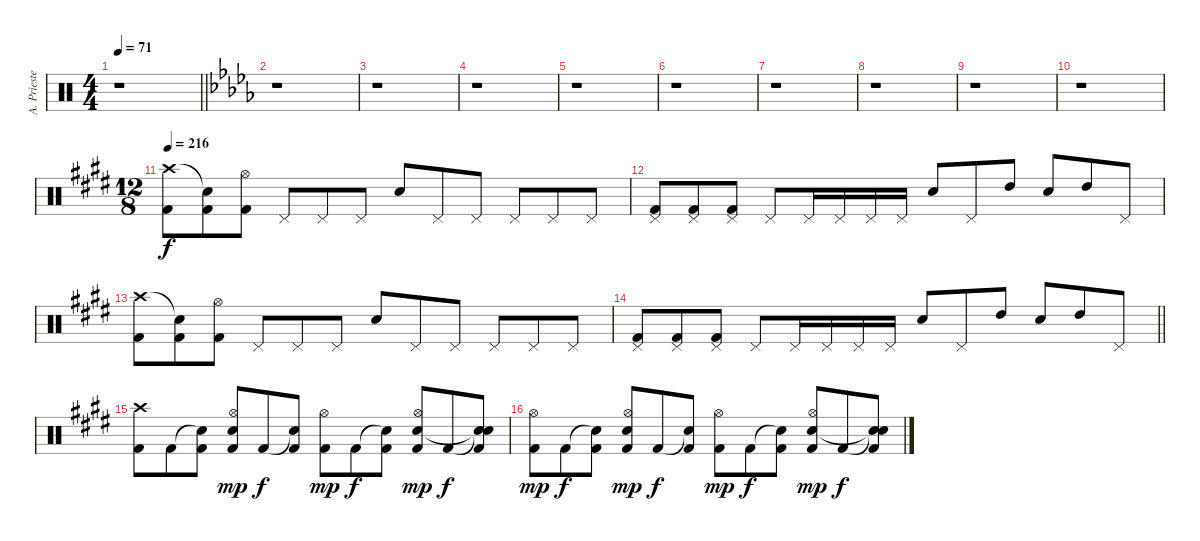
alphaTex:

\track ("A. Priester" "A. Prieste") {instrument percussion}
\staff {score}
\articulation defaults
\ts (4 4)
\tempo 71
\clef neutral
\barLineRight lightlight
\ks c
r.1{dy f} |
\ks db
r.1 |
r.1 |
r.1 |
r.1 |
r.1 |
r.1 |
r.1 |
r.1 |
r.1 |
\ts (12 8)
\tempo 216
\ks e
("Crash high (hit)" "Kick (hit) 2").8 ("Snare (hit)"{t} "Kick (hit) 2").8 ("Hi-Hat (open)" "Kick (hit) 2").8 "Pedal Hi-Hat (hit)".8 "Pedal Hi-Hat (hit)".8 "Pedal Hi-Hat (hit)".8 "Electric Snare (hit)".8 "Pedal Hi-Hat (hit)".8 "Pedal Hi-Hat (hit)".8 "Pedal Hi-Hat (hit)".8 "Pedal Hi-Hat (hit)".8 "Pedal Hi-Hat (hit)".8 |
("Pedal Hi-Hat (hit)" "Kick (hit) 2").8 ("Pedal Hi-Hat (hit)" "Kick (hit) 2").8 ("Pedal Hi-Hat (hit)" "Kick (hit) 2").8 "Pedal Hi-Hat (hit)".8 "Pedal Hi-Hat (hit)".16 "Pedal Hi-Hat (hit)".16 "Pedal Hi-Hat (hit)".16 "Pedal Hi-Hat (hit)".16 "Electric Snare (hit)".8 "Pedal Hi-Hat (hit)".8 "High Tom (hit)".8 "Electric Snare (hit)".8 "High Tom (hit)".8 "Pedal Hi-Hat (hit)".8 |
("Crash high (hit)" "Kick (hit) 2").8 ("Snare (hit)"{t} "Kick (hit) 2").8 ("Hi-Hat (open)" "Kick (hit) 2").8 "Pedal Hi-Hat (hit)".8 "Pedal Hi-Hat (hit)".8 "Pedal Hi-Hat (hit)".8 "Electric Snare (hit)".8 "Pedal Hi-Hat (hit)".8 "Pedal Hi-Hat (hit)".8 "Pedal Hi-Hat (hit)".8 "Pedal Hi-Hat (hit)".8 "Pedal Hi-Hat (hit)".8 |
\barLineRight lightlight
("Pedal Hi-Hat (hit)" "Kick (hit) 2").8 ("Pedal Hi-Hat (hit)" "Kick (hit) 2").8 ("Pedal Hi-Hat (hit)" "Kick (hit) 2").8 "Pedal Hi-Hat (hit)".8 "Pedal Hi-Hat (hit)".16 "Pedal Hi-Hat (hit)".16 "Pedal Hi-Hat (hit)".16 "Pedal Hi-Hat (hit)".16 "Electric Snare (hit)".8 "Pedal Hi-Hat (hit)".8 "High Tom (hit)".8 "Electric Snare (hit)".8 "High Tom (hit)".8 "Pedal Hi-Hat (hit)".8 |
("Crash high (hit)" "Kick (hit) 2").8 "Kick (hit) 2".8 ("Snare (hit)"{t} "Kick (hit) 2").8 ("Hi-Hat (open)" "Electric Snare (hit)" "Kick (hit) 2").8{dy mp} "Kick (hit) 2".8{dy f} ("Snare (hit)"{t} "Kick (hit) 2").8 ("Hi-Hat (open)" "Kick (hit) 2").8{dy mp} "Kick (hit) 2".8{dy f} ("Snare (hit)"{t} "Kick (hit) 2").8 ("Hi-Hat (open)" "Electric Snare (hit)" "Kick (hit) 2").8{dy mp} "Kick (hit) 2".8{dy f} ("Snare (hit)"{t} "Snare (hit)"{t} "Kick (hit) 2").8 |
("Hi-Hat (open)" "Kick (hit) 2").8{dy mp} "Kick (hit) 2".8{dy f} ("Snare (hit)"{t} "Kick (hit) 2").8 ("Hi-Hat (open)" "Electric Snare (hit)" "Kick (hit) 2").8{dy mp} "Kick (hit) 2".8{dy f} ("Snare (hit)"{t} "Kick (hit) 2").8 ("Hi-Hat (open)" "Kick (hit) 2").8{dy mp} "Kick (hit) 2".8{dy f} ("Snare (hit)"{t} "Kick (hit) 2").8 ("Hi-Hat (open)" "Electric Snare (hit)" "Kick (hit) 2").8{dy mp} "Kick (hit) 2".8{dy f} ("Snare (hit)"{t} "Snare (hit)"{t} "Kick (hit) 2").8
